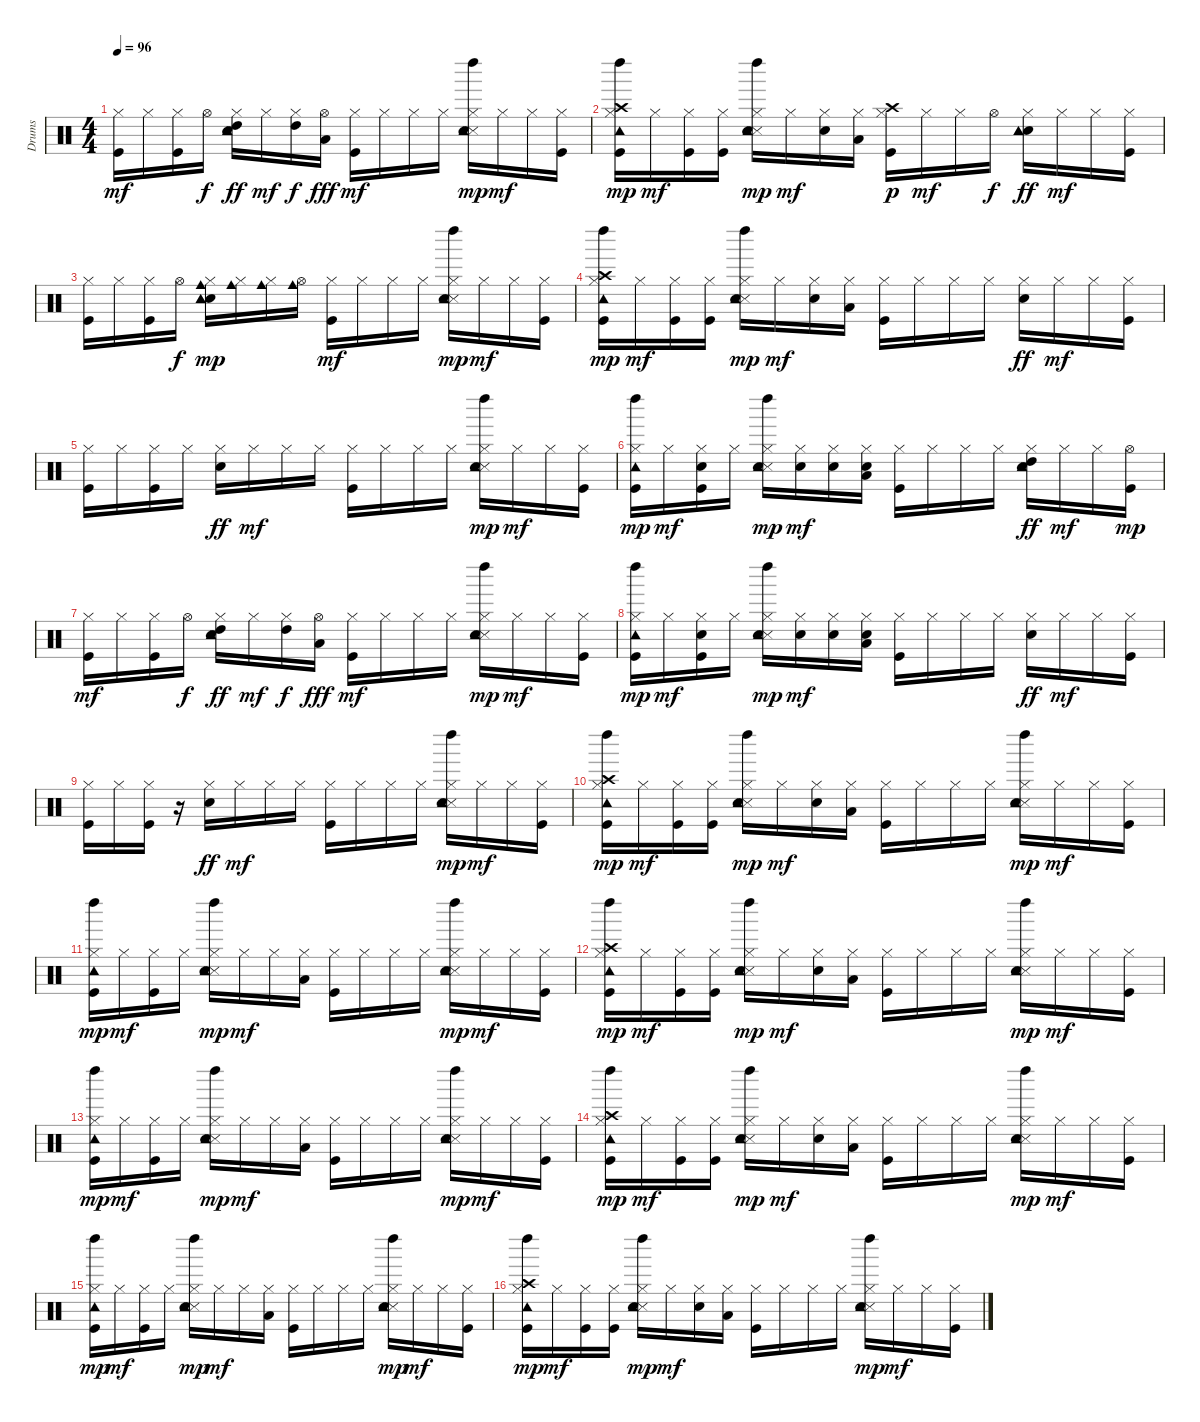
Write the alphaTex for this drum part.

\track ("Drums" "Drums") {instrument percussion}
\staff {score}
\articulation defaults
\ts (4 4)
\tempo 96
\clef neutral
\ks c
("Kick (hit)" "Hi-Hat (closed)").16{dy mf} "Hi-Hat (closed)".16 ("Kick (hit)" "Hi-Hat (closed)").16 "Hi-Hat (open)".16{dy f} ("Snare (hit) 2" "Hi-Hat (closed)" "High Tom (hit)" "Tambourine (hit)" "Tambourine (hit)").16{dy ff} "Hi-Hat (closed)".16{dy mf} ("Hi-Hat (closed)" "High Tom (hit)").16{dy f} ("Low Tom (hit)" "Hi-Hat (open)").16{dy fff} ("Kick (hit)" "Hi-Hat (closed)").16{dy mf} "Hi-Hat (closed)".16 "Hi-Hat (closed)".16 "Hi-Hat (closed)".16 ("Snare (side stick) 3" "Snare (hit) 2" "Hi-Hat (closed)" "Tambourine (hit)" "Left Maraca (hit)").16{dy mp} "Hi-Hat (closed)".16{dy mf} "Hi-Hat (closed)".16 ("Kick (hit)" "Hi-Hat (closed)").16 |
("Kick (hit)" "Hi-Hat (closed)" "Crash high (hit)" "Tambourine (hit)" "Left Maraca (hit)").16{dy mp} "Hi-Hat (closed)".16{dy mf} ("Kick (hit)" "Hi-Hat (closed)").16 ("Kick (hit)" "Hi-Hat (closed)").16 ("Snare (side stick) 3" "Snare (hit) 2" "Hi-Hat (closed)" "Tambourine (hit)" "Left Maraca (hit)").16{dy mp} "Hi-Hat (closed)".16{dy mf} ("Snare (hit) 2" "Hi-Hat (closed)").16 ("Low Floor Tom (hit)" "Hi-Hat (closed)").16 ("Kick (hit)" "Hi-Hat (closed)" "Crash high (hit)").16{dy p} "Hi-Hat (closed)".16{dy mf} "Hi-Hat (closed)".16 "Hi-Hat (open)".16{dy f} ("Snare (hit) 2" "Hi-Hat (closed)" "Tambourine (hit)" "Tambourine (hit)").16{dy ff} "Hi-Hat (closed)".16{dy mf} "Hi-Hat (closed)".16 ("Kick (hit)" "Hi-Hat (closed)").16 |
("Kick (hit)" "Hi-Hat (closed)").16 "Hi-Hat (closed)".16 ("Kick (hit)" "Hi-Hat (closed)").16 "Hi-Hat (open)".16{dy f} ("Snare (hit) 2" "Hi-Hat (closed)" "Tambourine (hit)" "Tambourine (hit)" "Cowbell medium (hit)").16{dy mp} ("Hi-Hat (closed)" "Cowbell medium (hit)").16 ("Hi-Hat (closed)" "Cowbell medium (hit)").16 ("Hi-Hat (open)" "Cowbell medium (hit)").16 ("Kick (hit)" "Hi-Hat (closed)").16{dy mf} "Hi-Hat (closed)".16 "Hi-Hat (closed)".16 "Hi-Hat (closed)".16 ("Snare (side stick) 3" "Snare (hit) 2" "Hi-Hat (closed)" "Tambourine (hit)" "Left Maraca (hit)").16{dy mp} "Hi-Hat (closed)".16{dy mf} "Hi-Hat (closed)".16 ("Kick (hit)" "Hi-Hat (closed)").16 |
("Kick (hit)" "Hi-Hat (closed)" "Crash high (hit)" "Tambourine (hit)" "Left Maraca (hit)").16{dy mp} "Hi-Hat (closed)".16{dy mf} ("Kick (hit)" "Hi-Hat (closed)").16 ("Kick (hit)" "Hi-Hat (closed)").16 ("Snare (side stick) 3" "Snare (hit) 2" "Hi-Hat (closed)" "Tambourine (hit)" "Left Maraca (hit)").16{dy mp} "Hi-Hat (closed)".16{dy mf} ("Snare (hit) 2" "Hi-Hat (closed)").16 ("Low Floor Tom (hit)" "Hi-Hat (closed)").16 ("Kick (hit)" "Hi-Hat (closed)").16 "Hi-Hat (closed)".16 "Hi-Hat (closed)".16 "Hi-Hat (closed)".16 ("Snare (hit) 2" "Hi-Hat (closed)").16{dy ff} "Hi-Hat (closed)".16{dy mf} "Hi-Hat (closed)".16 ("Kick (hit)" "Hi-Hat (closed)").16 |
("Kick (hit)" "Hi-Hat (closed)").16 "Hi-Hat (closed)".16 ("Kick (hit)" "Hi-Hat (closed)").16 "Hi-Hat (closed)".16 ("Snare (hit) 2" "Hi-Hat (closed)").16{dy ff} "Hi-Hat (closed)".16{dy mf} "Hi-Hat (closed)".16 "Hi-Hat (closed)".16 ("Kick (hit)" "Hi-Hat (closed)").16 "Hi-Hat (closed)".16 "Hi-Hat (closed)".16 "Hi-Hat (closed)".16 ("Snare (side stick) 3" "Snare (hit) 2" "Hi-Hat (closed)" "Tambourine (hit)" "Left Maraca (hit)").16{dy mp} "Hi-Hat (closed)".16{dy mf} "Hi-Hat (closed)".16 ("Kick (hit)" "Hi-Hat (closed)").16 |
("Kick (hit)" "Hi-Hat (closed)" "Tambourine (hit)" "Left Maraca (hit)").16{dy mp} "Hi-Hat (closed)".16{dy mf} ("Kick (hit)" "Snare (hit) 2" "Hi-Hat (closed)").16 "Hi-Hat (closed)".16 ("Snare (side stick) 3" "Snare (hit) 2" "Hi-Hat (closed)" "Tambourine (hit)" "Left Maraca (hit)").16{dy mp} ("Snare (hit) 2" "Hi-Hat (closed)").16{dy mf} ("Snare (hit) 2" "Hi-Hat (closed)").16 ("Snare (hit) 2" "Low Floor Tom (hit)" "Hi-Hat (closed)").16 ("Kick (hit)" "Hi-Hat (closed)").16 "Hi-Hat (closed)".16 "Hi-Hat (closed)".16 "Hi-Hat (closed)".16 ("Snare (hit) 2" "Hi-Hat (closed)" "High Tom (hit)" "Tambourine (hit)" "Tambourine (hit)").16{dy ff} "Hi-Hat (closed)".16{dy mf} "Hi-Hat (closed)".16 ("Kick (hit)" "Hi-Hat (open)").16{dy mp} |
("Kick (hit)" "Hi-Hat (closed)").16{dy mf} "Hi-Hat (closed)".16 ("Kick (hit)" "Hi-Hat (closed)").16 "Hi-Hat (open)".16{dy f} ("Snare (hit) 2" "Hi-Hat (closed)" "High Tom (hit)" "Tambourine (hit)" "Tambourine (hit)").16{dy ff} "Hi-Hat (closed)".16{dy mf} ("Hi-Hat (closed)" "High Tom (hit)").16{dy f} ("Low Tom (hit)" "Hi-Hat (open)").16{dy fff} ("Kick (hit)" "Hi-Hat (closed)").16{dy mf} "Hi-Hat (closed)".16 "Hi-Hat (closed)".16 "Hi-Hat (closed)".16 ("Snare (side stick) 3" "Snare (hit) 2" "Hi-Hat (closed)" "Tambourine (hit)" "Left Maraca (hit)").16{dy mp} "Hi-Hat (closed)".16{dy mf} "Hi-Hat (closed)".16 ("Kick (hit)" "Hi-Hat (closed)").16 |
("Kick (hit)" "Hi-Hat (closed)" "Tambourine (hit)" "Left Maraca (hit)").16{dy mp} "Hi-Hat (closed)".16{dy mf} ("Kick (hit)" "Snare (hit) 2" "Hi-Hat (closed)").16 "Hi-Hat (closed)".16 ("Snare (side stick) 3" "Snare (hit) 2" "Hi-Hat (closed)" "Tambourine (hit)" "Left Maraca (hit)").16{dy mp} ("Snare (hit) 2" "Hi-Hat (closed)").16{dy mf} ("Snare (hit) 2" "Hi-Hat (closed)").16 ("Snare (hit) 2" "Low Floor Tom (hit)" "Hi-Hat (closed)").16 ("Kick (hit)" "Hi-Hat (closed)").16 "Hi-Hat (closed)".16 "Hi-Hat (closed)".16 "Hi-Hat (closed)".16 ("Snare (hit) 2" "Hi-Hat (closed)").16{dy ff} "Hi-Hat (closed)".16{dy mf} "Hi-Hat (closed)".16 ("Kick (hit)" "Hi-Hat (closed)").16 |
("Kick (hit)" "Hi-Hat (closed)").16 "Hi-Hat (closed)".16 ("Kick (hit)" "Hi-Hat (closed)").16 r.16 ("Snare (hit) 2" "Hi-Hat (closed)").16{dy ff} "Hi-Hat (closed)".16{dy mf} "Hi-Hat (closed)".16 "Hi-Hat (closed)".16 ("Kick (hit)" "Hi-Hat (closed)").16 "Hi-Hat (closed)".16 "Hi-Hat (closed)".16 "Hi-Hat (closed)".16 ("Snare (side stick) 3" "Snare (hit) 2" "Hi-Hat (closed)" "Tambourine (hit)" "Left Maraca (hit)").16{dy mp} "Hi-Hat (closed)".16{dy mf} "Hi-Hat (closed)".16 ("Kick (hit)" "Hi-Hat (closed)").16 |
("Kick (hit)" "Hi-Hat (closed)" "Crash high (hit)" "Tambourine (hit)" "Left Maraca (hit)").16{dy mp} "Hi-Hat (closed)".16{dy mf} ("Kick (hit)" "Hi-Hat (closed)").16 ("Kick (hit)" "Hi-Hat (closed)").16 ("Snare (side stick) 3" "Snare (hit) 2" "Hi-Hat (closed)" "Tambourine (hit)" "Left Maraca (hit)").16{dy mp} "Hi-Hat (closed)".16{dy mf} ("Snare (hit) 2" "Hi-Hat (closed)").16 ("Low Floor Tom (hit)" "Hi-Hat (closed)").16 ("Kick (hit)" "Hi-Hat (closed)").16 "Hi-Hat (closed)".16 "Hi-Hat (closed)".16 "Hi-Hat (closed)".16 ("Snare (side stick) 3" "Snare (hit) 2" "Hi-Hat (closed)" "Tambourine (hit)" "Left Maraca (hit)").16{dy mp} "Hi-Hat (closed)".16{dy mf} "Hi-Hat (closed)".16 ("Kick (hit)" "Hi-Hat (closed)").16 |
("Kick (hit)" "Hi-Hat (closed)" "Tambourine (hit)" "Left Maraca (hit)").16{dy mp} "Hi-Hat (closed)".16{dy mf} ("Kick (hit)" "Hi-Hat (closed)").16 "Hi-Hat (closed)".16 ("Snare (side stick) 3" "Snare (hit) 2" "Hi-Hat (closed)" "Tambourine (hit)" "Left Maraca (hit)").16{dy mp} "Hi-Hat (closed)".16{dy mf} "Hi-Hat (closed)".16 ("Low Floor Tom (hit)" "Hi-Hat (closed)").16 ("Kick (hit)" "Hi-Hat (closed)").16 "Hi-Hat (closed)".16 "Hi-Hat (closed)".16 "Hi-Hat (closed)".16 ("Snare (side stick) 3" "Snare (hit) 2" "Hi-Hat (closed)" "Tambourine (hit)" "Left Maraca (hit)").16{dy mp} "Hi-Hat (closed)".16{dy mf} "Hi-Hat (closed)".16 ("Kick (hit)" "Hi-Hat (closed)").16 |
("Kick (hit)" "Hi-Hat (closed)" "Crash high (hit)" "Tambourine (hit)" "Left Maraca (hit)").16{dy mp} "Hi-Hat (closed)".16{dy mf} ("Kick (hit)" "Hi-Hat (closed)").16 ("Kick (hit)" "Hi-Hat (closed)").16 ("Snare (side stick) 3" "Snare (hit) 2" "Hi-Hat (closed)" "Tambourine (hit)" "Left Maraca (hit)").16{dy mp} "Hi-Hat (closed)".16{dy mf} ("Snare (hit) 2" "Hi-Hat (closed)").16 ("Low Floor Tom (hit)" "Hi-Hat (closed)").16 ("Kick (hit)" "Hi-Hat (closed)").16 "Hi-Hat (closed)".16 "Hi-Hat (closed)".16 "Hi-Hat (closed)".16 ("Snare (side stick) 3" "Snare (hit) 2" "Hi-Hat (closed)" "Tambourine (hit)" "Left Maraca (hit)").16{dy mp} "Hi-Hat (closed)".16{dy mf} "Hi-Hat (closed)".16 ("Kick (hit)" "Hi-Hat (closed)").16 |
("Kick (hit)" "Hi-Hat (closed)" "Tambourine (hit)" "Left Maraca (hit)").16{dy mp} "Hi-Hat (closed)".16{dy mf} ("Kick (hit)" "Hi-Hat (closed)").16 "Hi-Hat (closed)".16 ("Snare (side stick) 3" "Snare (hit) 2" "Hi-Hat (closed)" "Tambourine (hit)" "Left Maraca (hit)").16{dy mp} "Hi-Hat (closed)".16{dy mf} "Hi-Hat (closed)".16 ("Low Floor Tom (hit)" "Hi-Hat (closed)").16 ("Kick (hit)" "Hi-Hat (closed)").16 "Hi-Hat (closed)".16 "Hi-Hat (closed)".16 "Hi-Hat (closed)".16 ("Snare (side stick) 3" "Snare (hit) 2" "Hi-Hat (closed)" "Tambourine (hit)" "Left Maraca (hit)").16{dy mp} "Hi-Hat (closed)".16{dy mf} "Hi-Hat (closed)".16 ("Kick (hit)" "Hi-Hat (closed)").16 |
("Kick (hit)" "Hi-Hat (closed)" "Crash high (hit)" "Tambourine (hit)" "Left Maraca (hit)").16{dy mp} "Hi-Hat (closed)".16{dy mf} ("Kick (hit)" "Hi-Hat (closed)").16 ("Kick (hit)" "Hi-Hat (closed)").16 ("Snare (side stick) 3" "Snare (hit) 2" "Hi-Hat (closed)" "Tambourine (hit)" "Left Maraca (hit)").16{dy mp} "Hi-Hat (closed)".16{dy mf} ("Snare (hit) 2" "Hi-Hat (closed)").16 ("Low Floor Tom (hit)" "Hi-Hat (closed)").16 ("Kick (hit)" "Hi-Hat (closed)").16 "Hi-Hat (closed)".16 "Hi-Hat (closed)".16 "Hi-Hat (closed)".16 ("Snare (side stick) 3" "Snare (hit) 2" "Hi-Hat (closed)" "Tambourine (hit)" "Left Maraca (hit)").16{dy mp} "Hi-Hat (closed)".16{dy mf} "Hi-Hat (closed)".16 ("Kick (hit)" "Hi-Hat (closed)").16 |
("Kick (hit)" "Hi-Hat (closed)" "Tambourine (hit)" "Left Maraca (hit)").16{dy mp} "Hi-Hat (closed)".16{dy mf} ("Kick (hit)" "Hi-Hat (closed)").16 "Hi-Hat (closed)".16 ("Snare (side stick) 3" "Snare (hit) 2" "Hi-Hat (closed)" "Tambourine (hit)" "Left Maraca (hit)").16{dy mp} "Hi-Hat (closed)".16{dy mf} "Hi-Hat (closed)".16 ("Low Floor Tom (hit)" "Hi-Hat (closed)").16 ("Kick (hit)" "Hi-Hat (closed)").16 "Hi-Hat (closed)".16 "Hi-Hat (closed)".16 "Hi-Hat (closed)".16 ("Snare (side stick) 3" "Snare (hit) 2" "Hi-Hat (closed)" "Tambourine (hit)" "Left Maraca (hit)").16{dy mp} "Hi-Hat (closed)".16{dy mf} "Hi-Hat (closed)".16 ("Kick (hit)" "Hi-Hat (closed)").16 |
("Kick (hit)" "Hi-Hat (closed)" "Crash high (hit)" "Tambourine (hit)" "Left Maraca (hit)").16{dy mp} "Hi-Hat (closed)".16{dy mf} ("Kick (hit)" "Hi-Hat (closed)").16 ("Kick (hit)" "Hi-Hat (closed)").16 ("Snare (side stick) 3" "Snare (hit) 2" "Hi-Hat (closed)" "Tambourine (hit)" "Left Maraca (hit)").16{dy mp} "Hi-Hat (closed)".16{dy mf} ("Snare (hit) 2" "Hi-Hat (closed)").16 ("Low Floor Tom (hit)" "Hi-Hat (closed)").16 ("Kick (hit)" "Hi-Hat (closed)").16 "Hi-Hat (closed)".16 "Hi-Hat (closed)".16 "Hi-Hat (closed)".16 ("Snare (side stick) 3" "Snare (hit) 2" "Hi-Hat (closed)" "Tambourine (hit)" "Left Maraca (hit)").16{dy mp} "Hi-Hat (closed)".16{dy mf} "Hi-Hat (closed)".16 ("Kick (hit)" "Hi-Hat (closed)").16
